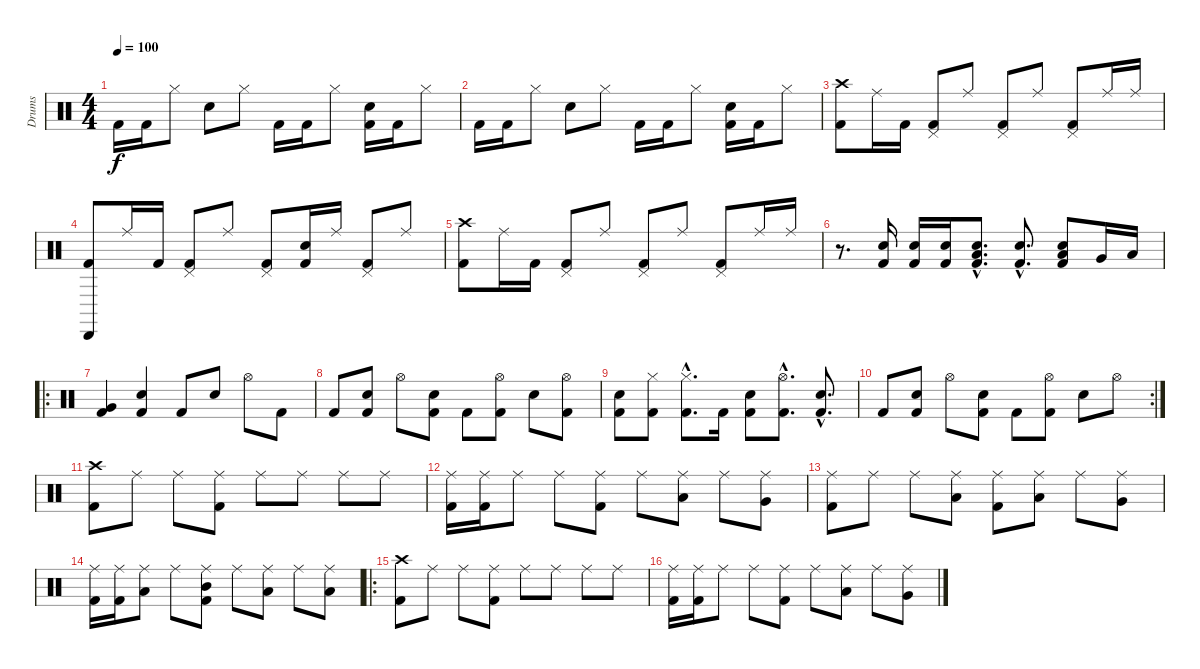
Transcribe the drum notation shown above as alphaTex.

\track ("Drums" "Drums") {instrument percussion}
\staff {score}
\articulation defaults
\ts (4 4)
\tempo 100
\clef neutral
\ks c "Kick (hit) 2".16{dy f} "Kick (hit) 2".16 "Hi-Hat (closed)".8 "Electric Snare (hit)".8 "Hi-Hat (closed)".8 "Kick (hit) 2".16 "Kick (hit) 2".16 "Hi-Hat (closed)".8
("Electric Snare (hit)" "Kick (hit) 2").16 "Kick (hit) 2".16 "Hi-Hat (closed)".8 |
"Kick (hit) 2".16 "Kick (hit) 2".16 "Hi-Hat (closed)".8 "Electric Snare (hit)".8 "Hi-Hat (closed)".8 "Kick (hit) 2".16 "Kick (hit) 2".16 "Hi-Hat (closed)".8 ("Electric Snare (hit)" "Kick (hit) 2").16 "Kick (hit) 2".16 "Hi-Hat (closed)".8 |
("Crash high (hit)" "Kick (hit) 2").8 "Ride (middle)".16 "Kick (hit) 2".16 ("Pedal Hi-Hat (hit)" "Kick (hit) 2").8 "Ride (middle)".8 ("Pedal Hi-Hat (hit)" "Kick (hit) 2").8 "Ride (middle)".8 ("Pedal Hi-Hat (hit)" "Kick (hit) 2").8 "Ride (middle)".16 "Ride (middle)".16 |
("Cabasa (hit)" "Kick (hit) 2").8 "Ride (middle)".16 "Kick (hit) 2".16 ("Pedal Hi-Hat (hit)" "Kick (hit) 2").8 "Ride (middle)".8 ("Pedal Hi-Hat (hit)" "Kick (hit) 2").8 ("Electric Snare (hit)" "Kick (hit) 2").16 "Ride (middle)".16 ("Pedal Hi-Hat (hit)" "Kick (hit) 2").8 "Ride (middle)".8 |
("Crash high (hit)" "Kick (hit) 2").8 "Ride (middle)".16 "Kick (hit) 2".16 ("Pedal Hi-Hat (hit)" "Kick (hit) 2").8 "Ride (middle)".8 ("Pedal Hi-Hat (hit)" "Kick (hit) 2").8 "Ride (middle)".8 ("Pedal Hi-Hat (hit)" "Kick (hit) 2").8 "Ride (middle)".16 "Ride (middle)".16 |
r.8{d} ("Electric Snare (hit)" "Kick (hit) 2").16 ("Electric Snare (hit)" "Kick (hit) 2").16 ("Electric Snare (hit)" "Kick (hit) 2").16 ("Electric Snare (hit)"{hac} "Low Floor Tom (hit)"{hac} "Kick (hit) 2"{hac}).8{d} ("Electric Snare (hit)"{hac} "Kick (hit) 2"{hac}).8{d} ("Electric Snare (hit)" "Low Floor Tom (hit)" "Kick (hit) 2").8 "Very Low Tom (hit)".16 "Low Floor Tom (hit)".16 |
\ro
("Very Low Tom (hit)" "Kick (hit) 2").4 ("Electric Snare (hit)" "Kick (hit) 2").4 "Kick (hit) 2".8 "Electric Snare (hit)".8 "Hi-Hat (open)".8 "Kick (hit) 2".8 |
"Kick (hit) 2".8 ("Electric Snare (hit)" "Kick (hit) 2").8 "Hi-Hat (open)".8 ("Electric Snare (hit)" "Kick (hit) 2").8 "Kick (hit) 2".8 ("Hi-Hat (open)" "Kick (hit) 2").8 "Electric Snare (hit)".8 ("Hi-Hat (open)" "Kick (hit) 2").8 |
("Electric Snare (hit)" "Kick (hit) 2").8 ("Hi-Hat (closed)" "Kick (hit) 2").8 ("Hi-Hat (closed)"{hac} "Kick (hit) 2"{hac}).8{d} "Kick (hit) 2".16 ("Electric Snare (hit)" "Kick (hit) 2").8 ("Hi-Hat (open)"{hac} "Kick (hit) 2"{hac}).8{d} ("Electric Snare (hit)"{hac} "Kick (hit) 2"{hac}).8{d} |
\rc 2 "Kick (hit) 2".8
("Electric Snare (hit)" "Kick (hit) 2").8 "Hi-Hat (open)".8 ("Electric Snare (hit)" "Kick (hit) 2").8 "Kick (hit) 2".8 ("Hi-Hat (open)" "Kick (hit) 2").8 "Electric Snare (hit)".8 "Hi-Hat (open)".8 |
("Crash high (hit)" "Kick (hit) 2").8 "Ride (middle)".8 "Ride (middle)".8 ("Ride (middle)" "Kick (hit) 2").8 "Ride (middle)".8 "Ride (middle)".8 "Ride (middle)".8 "Ride (middle)".8 |
("Ride (middle)" "Kick (hit) 2").16 ("Ride (middle)" "Kick (hit) 2").16 "Ride (middle)".8 "Ride (middle)".8 ("Ride (middle)" "Kick (hit) 2").8 "Ride (middle)".8 ("Low Floor Tom (hit)" "Ride (middle)").8 "Ride (middle)".8 ("Very Low Tom (hit)" "Ride (middle)").8 |
("Ride (middle)" "Kick (hit) 2").8 "Ride (middle)".8 "Ride (middle)".8 ("Low Tom (hit)" "Ride (middle)").8 ("Ride (middle)" "Kick (hit) 2").8 ("Low Floor Tom (hit)" "Ride (middle)").8 "Ride (middle)".8 ("Very Low Tom (hit)" "Ride (middle)").8 |
("Ride (middle)" "Kick (hit) 2").16 ("Ride (middle)" "Kick (hit) 2").16 ("Low Tom (hit)" "Ride (middle)").8 "Ride (middle)".8 ("Mid Tom (hit)" "Ride (middle)" "Kick (hit) 2").8 "Ride (middle)".8 ("Low Tom (hit)" "Ride (middle)").8 "Ride (middle)".8 ("Low Floor Tom (hit)" "Ride (middle)").8 |
\ro
("Crash high (hit)" "Kick (hit) 2").8 "Ride (middle)".8 "Ride (middle)".8 ("Ride (middle)" "Kick (hit) 2").8 "Ride (middle)".8 "Ride (middle)".8 "Ride (middle)".8 "Ride (middle)".8 |
("Ride (middle)" "Kick (hit) 2").16 ("Ride (middle)" "Kick (hit) 2").16 "Ride (middle)".8 "Ride (middle)".8 ("Ride (middle)" "Kick (hit) 2").8 "Ride (middle)".8 ("Low Floor Tom (hit)" "Ride (middle)").8 "Ride (middle)".8 ("Very Low Tom (hit)" "Ride (middle)").8
